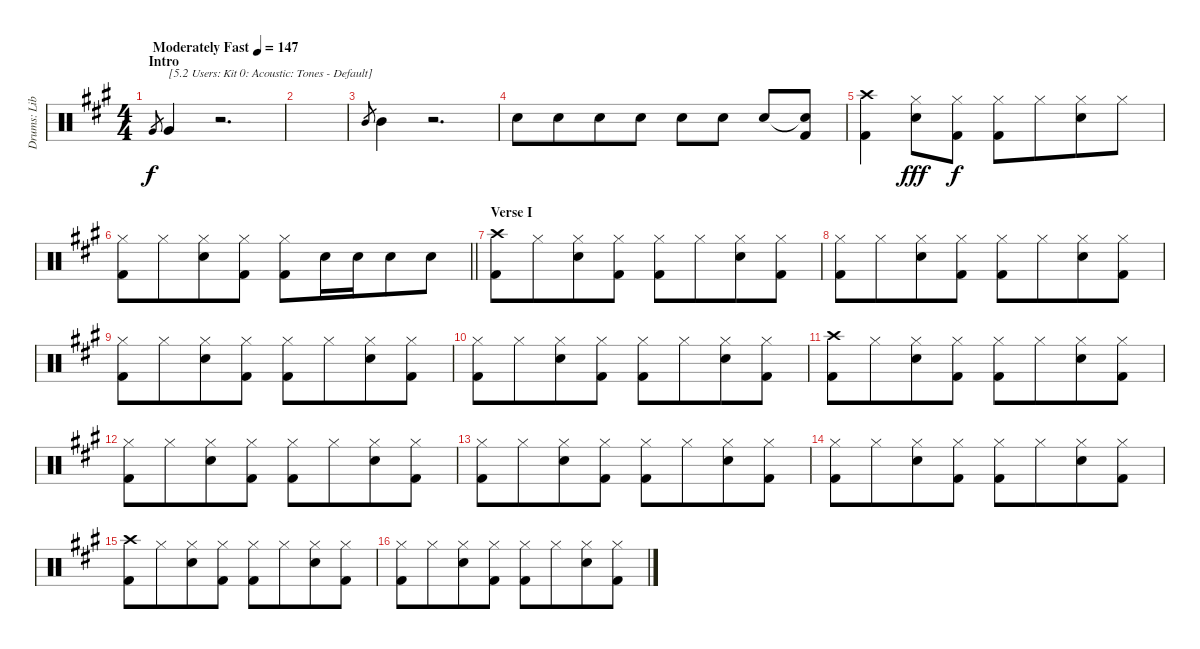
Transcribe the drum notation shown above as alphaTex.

\track ("Drums: Liberty" "Drums: Lib") {instrument percussion}
\staff {score}
\articulation defaults
\ts (4 4)
\section ("" "Intro")
\tempo (147 "Moderately Fast")
\clef neutral
\ks a "Very Low Tom (hit)".8{gr dy f} "Very Low Tom (hit)".4{txt "[5.2 Users: Kit 0: Acoustic: Tones - Default]"}
r.2{d} |
|
"Mid Tom (hit)".8{gr} "Mid Tom (hit)".4 r.2{d} |
"Electric Snare (hit)".8 "Electric Snare (hit)".8{beam merge} "Electric Snare (hit)".8 "Electric Snare (hit)".8 "Electric Snare (hit)".8 "Electric Snare (hit)".8 "Electric Snare (hit)".8 ("Snare (hit)"{t} "Kick (hit) 2").8 |
("Crash high (hit)" "Kick (hit) 2").4 ("Hi-Hat (closed)" "Electric Snare (hit)").8{dy fff} ("Hi-Hat (closed)" "Kick (hit) 2").8{dy f} ("Hi-Hat (closed)" "Kick (hit) 2").8 "Hi-Hat (closed)".8{beam merge} ("Hi-Hat (closed)" "Electric Snare (hit)").8 "Hi-Hat (closed)".8 |
\barLineRight lightlight
("Hi-Hat (closed)" "Kick (hit) 2").8 "Hi-Hat (closed)".8{beam merge} ("Hi-Hat (closed)" "Electric Snare (hit)").8 ("Hi-Hat (closed)" "Kick (hit) 2").8 ("Hi-Hat (closed)" "Kick (hit) 2").8{beam merge} "Electric Snare (hit)".16{beam merge} "Electric Snare (hit)".16{beam merge} "Electric Snare (hit)".8{beam merge} "Electric Snare (hit)".8 |
\section ("" "Verse I")
("Crash high (hit)" "Kick (hit) 2").8 "Hi-Hat (closed)".8{beam merge} ("Hi-Hat (closed)" "Electric Snare (hit)").8 ("Hi-Hat (closed)" "Kick (hit) 2").8 ("Hi-Hat (closed)" "Kick (hit) 2").8 "Hi-Hat (closed)".8{beam merge} ("Hi-Hat (closed)" "Electric Snare (hit)").8 ("Hi-Hat (closed)" "Kick (hit) 2").8 |
("Hi-Hat (closed)" "Kick (hit) 2").8 "Hi-Hat (closed)".8{beam merge} ("Hi-Hat (closed)" "Electric Snare (hit)").8 ("Hi-Hat (closed)" "Kick (hit) 2").8 ("Hi-Hat (closed)" "Kick (hit) 2").8 "Hi-Hat (closed)".8{beam merge} ("Hi-Hat (closed)" "Electric Snare (hit)").8 ("Hi-Hat (closed)" "Kick (hit) 2").8 |
("Hi-Hat (closed)" "Kick (hit) 2").8 "Hi-Hat (closed)".8{beam merge} ("Hi-Hat (closed)" "Electric Snare (hit)").8 ("Hi-Hat (closed)" "Kick (hit) 2").8 ("Hi-Hat (closed)" "Kick (hit) 2").8 "Hi-Hat (closed)".8{beam merge} ("Hi-Hat (closed)" "Electric Snare (hit)").8 ("Hi-Hat (closed)" "Kick (hit) 2").8 |
("Hi-Hat (closed)" "Kick (hit) 2").8 "Hi-Hat (closed)".8{beam merge} ("Hi-Hat (closed)" "Electric Snare (hit)").8 ("Hi-Hat (closed)" "Kick (hit) 2").8 ("Hi-Hat (closed)" "Kick (hit) 2").8 "Hi-Hat (closed)".8{beam merge} ("Hi-Hat (closed)" "Electric Snare (hit)").8 ("Hi-Hat (closed)" "Kick (hit) 2").8 |
("Crash high (hit)" "Kick (hit) 2").8 "Hi-Hat (closed)".8{beam merge} ("Hi-Hat (closed)" "Electric Snare (hit)").8 ("Hi-Hat (closed)" "Kick (hit) 2").8 ("Hi-Hat (closed)" "Kick (hit) 2").8 "Hi-Hat (closed)".8{beam merge} ("Hi-Hat (closed)" "Electric Snare (hit)").8 ("Hi-Hat (closed)" "Kick (hit) 2").8 |
("Hi-Hat (closed)" "Kick (hit) 2").8 "Hi-Hat (closed)".8{beam merge} ("Hi-Hat (closed)" "Electric Snare (hit)").8 ("Hi-Hat (closed)" "Kick (hit) 2").8 ("Hi-Hat (closed)" "Kick (hit) 2").8 "Hi-Hat (closed)".8{beam merge} ("Hi-Hat (closed)" "Electric Snare (hit)").8 ("Hi-Hat (closed)" "Kick (hit) 2").8 |
("Hi-Hat (closed)" "Kick (hit) 2").8 "Hi-Hat (closed)".8{beam merge} ("Hi-Hat (closed)" "Electric Snare (hit)").8 ("Hi-Hat (closed)" "Kick (hit) 2").8 ("Hi-Hat (closed)" "Kick (hit) 2").8 "Hi-Hat (closed)".8{beam merge} ("Hi-Hat (closed)" "Electric Snare (hit)").8 ("Hi-Hat (closed)" "Kick (hit) 2").8 |
("Hi-Hat (closed)" "Kick (hit) 2").8 "Hi-Hat (closed)".8{beam merge} ("Hi-Hat (closed)" "Electric Snare (hit)").8 ("Hi-Hat (closed)" "Kick (hit) 2").8 ("Hi-Hat (closed)" "Kick (hit) 2").8 "Hi-Hat (closed)".8{beam merge} ("Hi-Hat (closed)" "Electric Snare (hit)").8 ("Hi-Hat (closed)" "Kick (hit) 2").8 |
("Crash high (hit)" "Kick (hit) 2").8 "Hi-Hat (closed)".8{beam merge} ("Hi-Hat (closed)" "Electric Snare (hit)").8 ("Hi-Hat (closed)" "Kick (hit) 2").8 ("Hi-Hat (closed)" "Kick (hit) 2").8 "Hi-Hat (closed)".8{beam merge} ("Hi-Hat (closed)" "Electric Snare (hit)").8 ("Hi-Hat (closed)" "Kick (hit) 2").8 |
("Hi-Hat (closed)" "Kick (hit) 2").8 "Hi-Hat (closed)".8{beam merge} ("Hi-Hat (closed)" "Electric Snare (hit)").8 ("Hi-Hat (closed)" "Kick (hit) 2").8 ("Hi-Hat (closed)" "Kick (hit) 2").8 "Hi-Hat (closed)".8{beam merge} ("Hi-Hat (closed)" "Electric Snare (hit)").8 ("Hi-Hat (closed)" "Kick (hit) 2").8
